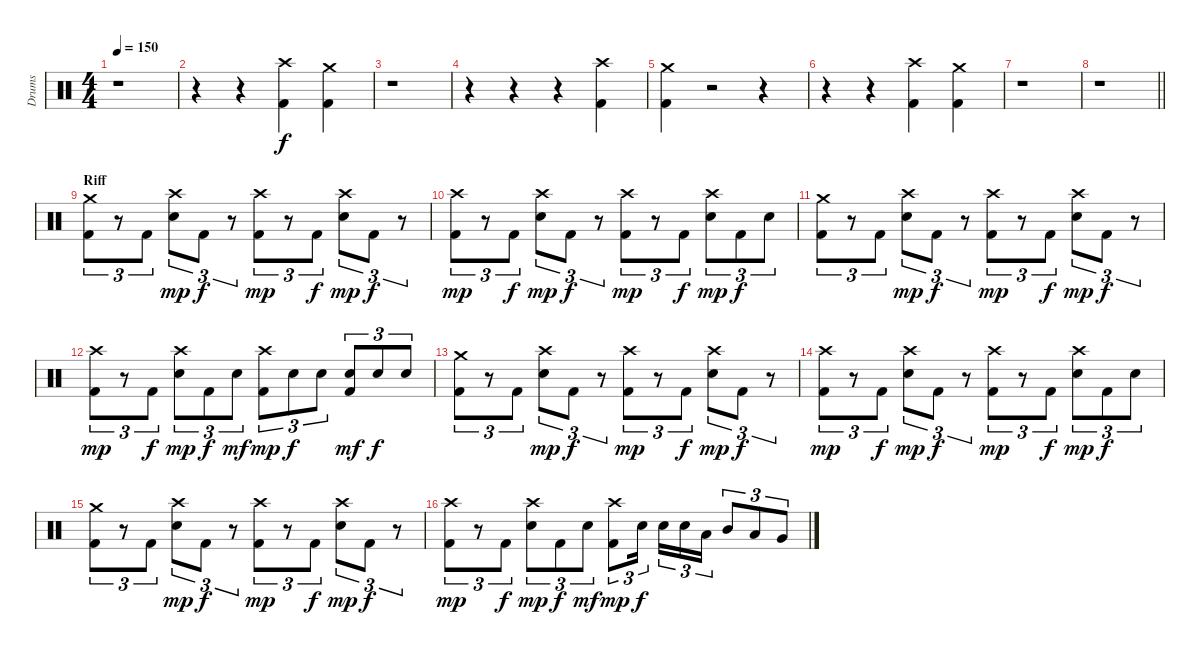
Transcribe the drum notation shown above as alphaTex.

\track ("Drums" "Drums") {instrument percussion}
\staff {score}
\articulation defaults
\ts (4 4)
\tempo 150
\clef neutral
\ks c
r.1{dy f} |
r.4 r.4 ("Crash high (hit)" "Kick (hit) 2").4 ("Crash medium (hit)" "Kick (hit) 2").4 |
r.1 |
r.4 r.4 r.4 ("Crash high (hit)" "Kick (hit) 2").4 |
("Crash medium (hit)" "Kick (hit) 2").4 r.2 r.4 |
r.4 r.4 ("Crash high (hit)" "Kick (hit) 2").4 ("Crash medium (hit)" "Kick (hit) 2").4 |
r.1 |
\barLineRight lightlight
r.1 |
\section ("" "Riff")
("Crash medium (hit)" "Kick (hit) 2").8{tu (3 2)} r.8{tu (3 2)} "Kick (hit) 2".8{tu (3 2)} ("Crash high (hit)" "Electric Snare (hit)").8{tu (3 2) dy mp} "Kick (hit) 2".8{tu (3 2) dy f} r.8{tu (3 2)} ("Crash high (hit)" "Kick (hit) 2").8{tu (3 2) dy mp} r.8{tu (3 2)} "Kick (hit) 2".8{tu (3 2) dy f} ("Crash high (hit)" "Electric Snare (hit)").8{tu (3 2) dy mp} "Kick (hit) 2".8{tu (3 2) dy f} r.8{tu (3 2)} |
("Crash high (hit)" "Kick (hit) 2").8{tu (3 2) dy mp} r.8{tu (3 2)} "Kick (hit) 2".8{tu (3 2) dy f} ("Crash high (hit)" "Electric Snare (hit)").8{tu (3 2) dy mp} "Kick (hit) 2".8{tu (3 2) dy f} r.8{tu (3 2)} ("Crash high (hit)" "Kick (hit) 2").8{tu (3 2) dy mp} r.8{tu (3 2)} "Kick (hit) 2".8{tu (3 2) dy f} ("Crash high (hit)" "Electric Snare (hit)").8{tu (3 2) dy mp} "Kick (hit) 2".8{tu (3 2) dy f} "Electric Snare (hit)".8{tu (3 2)} |
("Crash medium (hit)" "Kick (hit) 2").8{tu (3 2)} r.8{tu (3 2)} "Kick (hit) 2".8{tu (3 2)} ("Crash high (hit)" "Electric Snare (hit)").8{tu (3 2) dy mp} "Kick (hit) 2".8{tu (3 2) dy f} r.8{tu (3 2)} ("Crash high (hit)" "Kick (hit) 2").8{tu (3 2) dy mp} r.8{tu (3 2)} "Kick (hit) 2".8{tu (3 2) dy f} ("Crash high (hit)" "Electric Snare (hit)").8{tu (3 2) dy mp} "Kick (hit) 2".8{tu (3 2) dy f} r.8{tu (3 2)} |
("Crash high (hit)" "Kick (hit) 2").8{tu (3 2) dy mp} r.8{tu (3 2)} "Kick (hit) 2".8{tu (3 2) dy f} ("Crash high (hit)" "Electric Snare (hit)").8{tu (3 2) dy mp} "Kick (hit) 2".8{tu (3 2) dy f} "Electric Snare (hit)".8{tu (3 2) dy mf} ("Crash high (hit)" "Kick (hit) 2").8{tu (3 2) dy mp} "Electric Snare (hit)".8{tu (3 2) dy f} "Electric Snare (hit)".8{tu (3 2)} ("Kick (hit) 2" "Electric Snare (hit)").8{tu (3 2) dy mf} "Electric Snare (hit)".8{tu (3 2) dy f} "Electric Snare (hit)".8{tu (3 2)} |
("Crash medium (hit)" "Kick (hit) 2").8{tu (3 2)} r.8{tu (3 2)} "Kick (hit) 2".8{tu (3 2)} ("Crash high (hit)" "Electric Snare (hit)").8{tu (3 2) dy mp} "Kick (hit) 2".8{tu (3 2) dy f} r.8{tu (3 2)} ("Crash high (hit)" "Kick (hit) 2").8{tu (3 2) dy mp} r.8{tu (3 2)} "Kick (hit) 2".8{tu (3 2) dy f} ("Crash high (hit)" "Electric Snare (hit)").8{tu (3 2) dy mp} "Kick (hit) 2".8{tu (3 2) dy f} r.8{tu (3 2)} |
("Crash high (hit)" "Kick (hit) 2").8{tu (3 2) dy mp} r.8{tu (3 2)} "Kick (hit) 2".8{tu (3 2) dy f} ("Crash high (hit)" "Electric Snare (hit)").8{tu (3 2) dy mp} "Kick (hit) 2".8{tu (3 2) dy f} r.8{tu (3 2)} ("Crash high (hit)" "Kick (hit) 2").8{tu (3 2) dy mp} r.8{tu (3 2)} "Kick (hit) 2".8{tu (3 2) dy f} ("Crash high (hit)" "Electric Snare (hit)").8{tu (3 2) dy mp} "Kick (hit) 2".8{tu (3 2) dy f} "Electric Snare (hit)".8{tu (3 2)} |
("Crash medium (hit)" "Kick (hit) 2").8{tu (3 2)} r.8{tu (3 2)} "Kick (hit) 2".8{tu (3 2)} ("Crash high (hit)" "Electric Snare (hit)").8{tu (3 2) dy mp} "Kick (hit) 2".8{tu (3 2) dy f} r.8{tu (3 2)} ("Crash high (hit)" "Kick (hit) 2").8{tu (3 2) dy mp} r.8{tu (3 2)} "Kick (hit) 2".8{tu (3 2) dy f} ("Crash high (hit)" "Electric Snare (hit)").8{tu (3 2) dy mp} "Kick (hit) 2".8{tu (3 2) dy f} r.8{tu (3 2)} |
("Crash high (hit)" "Kick (hit) 2").8{tu (3 2) dy mp} r.8{tu (3 2)} "Kick (hit) 2".8{tu (3 2) dy f} ("Crash high (hit)" "Electric Snare (hit)").8{tu (3 2) dy mp} "Kick (hit) 2".8{tu (3 2) dy f} "Electric Snare (hit)".8{tu (3 2) dy mf} ("Crash high (hit)" "Kick (hit) 2").8{tu (3 2) dy mp} "Electric Snare (hit)".16{tu (3 2) dy f} "Electric Snare (hit)".16{tu (3 2)} "Electric Snare (hit)".16{tu (3 2)} "Low Tom (hit)".16{tu (3 2)} "Mid Tom (hit)".8{tu (3 2)} "Low Tom (hit)".8{tu (3 2)} "Very Low Tom (hit)".8{tu (3 2)}
